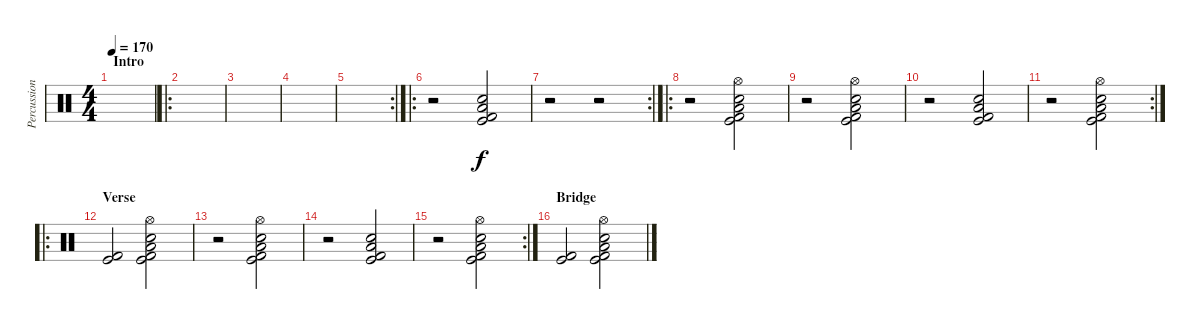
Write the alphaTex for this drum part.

\track ("Percussion" "Percussion") {instrument percussion}
\staff {score}
\articulation defaults
\ts (4 4)
\section ("" "Intro")
\tempo 170
\clef neutral
\ks c
|
\ro
|
|
|
\rc 2
|
\ro
r.2 ("Kick (hit) 2" "Snare (hit) 2" "Low Floor Tom (hit)" "Kick (hit)").2 |
\rc 2
r.2 r.2 |
\ro
r.2 ("Kick (hit) 2" "Snare (hit) 2" "Kick (hit)" "Low Floor Tom (hit)" "Hi-Hat (open)").2 |
r.2 ("Kick (hit) 2" "Snare (hit) 2" "Kick (hit)" "Low Floor Tom (hit)" "Hi-Hat (open)").2 |
r.2 ("Kick (hit) 2" "Snare (hit) 2" "Kick (hit)" "Low Floor Tom (hit)").2 |
\rc 2
r.2 ("Kick (hit) 2" "Snare (hit) 2" "Kick (hit)" "Low Floor Tom (hit)" "Hi-Hat (open)").2 |
\ro
\section ("" "Verse")
("Kick (hit)" "Kick (hit) 2").2{volume 10} ("Kick (hit) 2" "Snare (hit) 2" "Kick (hit)" "Low Floor Tom (hit)" "Hi-Hat (open)").2 |
r.2 ("Kick (hit) 2" "Snare (hit) 2" "Kick (hit)" "Low Floor Tom (hit)" "Hi-Hat (open)").2 |
r.2 ("Kick (hit) 2" "Snare (hit) 2" "Kick (hit)" "Low Floor Tom (hit)").2 |
\rc 2
r.2 ("Kick (hit) 2" "Snare (hit) 2" "Kick (hit)" "Low Floor Tom (hit)" "Hi-Hat (open)").2 |
\section ("" "Bridge")
("Kick (hit)" "Kick (hit) 2").2{volume 12} ("Kick (hit) 2" "Snare (hit) 2" "Kick (hit)" "Low Floor Tom (hit)" "Hi-Hat (open)").2
